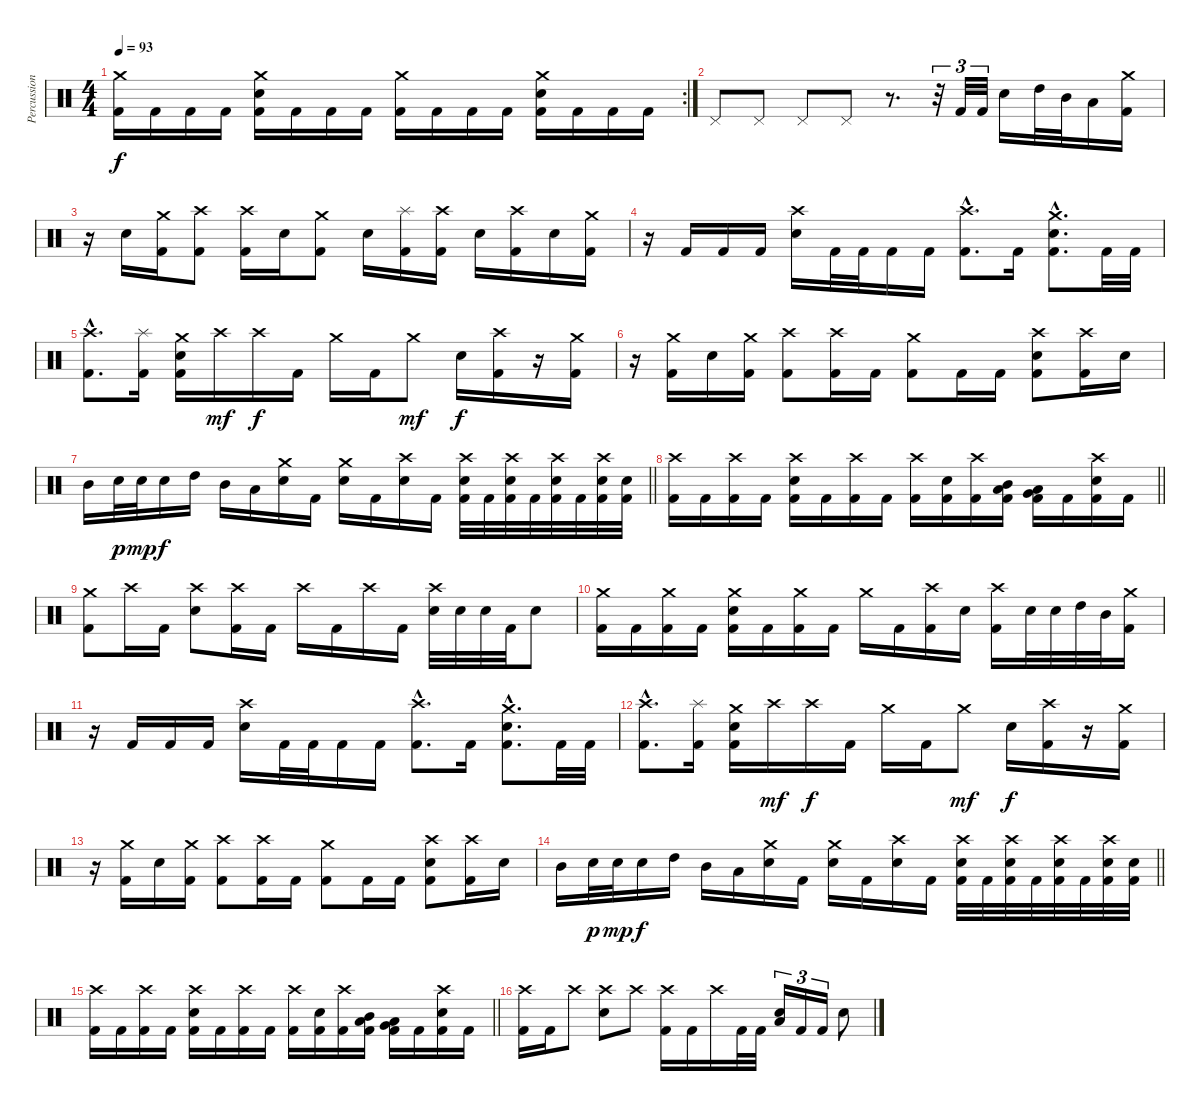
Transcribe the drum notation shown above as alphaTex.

\track ("Percussions" "Percussion") {instrument percussion}
\staff {score}
\articulation defaults
\rc 2
\ts (4 4)
\tempo 93
\clef neutral
\ks c
("Crash medium (hit)" "Kick (hit) 2").16{dy f} "Kick (hit) 2".16 "Kick (hit) 2".16 "Kick (hit) 2".16 ("Crash medium (hit)" "Electric Snare (hit)" "Kick (hit) 2").16 "Kick (hit) 2".16 "Kick (hit) 2".16 "Kick (hit) 2".16 ("Crash medium (hit)" "Kick (hit) 2").16 "Kick (hit) 2".16 "Kick (hit) 2".16 "Kick (hit) 2".16 ("Crash medium (hit)" "Electric Snare (hit)" "Kick (hit) 2").16 "Kick (hit) 2".16 "Kick (hit) 2".16 "Kick (hit) 2".16 |
"Pedal Hi-Hat (hit)".8 "Pedal Hi-Hat (hit)".8 "Pedal Hi-Hat (hit)".8 "Pedal Hi-Hat (hit)".8 r.8{d} r.32{tu (3 2)} "Kick (hit) 2".32{tu (3 2)} "Kick (hit) 2".32{tu (3 2)} "Electric Snare (hit)".16 "High Tom (hit)".32 "Mid Tom (hit)".32 "Low Tom (hit)".16 ("Crash medium (hit)" "Kick (hit) 2").16 |
r.16 "Electric Snare (hit)".16 ("Crash medium (hit)" "Kick (hit) 2").16 ("Crash high (hit)" "Kick (hit) 2").8 ("Crash high (hit)" "Kick (hit) 2").16 "Electric Snare (hit)".16 ("Crash medium (hit)" "Kick (hit) 2").8 "Electric Snare (hit)".16 ("Splash (hit)" "Kick (hit) 2").16 ("Crash high (hit)" "Kick (hit) 2").16 "Electric Snare (hit)".16 ("Crash high (hit)" "Kick (hit) 2").16 "Electric Snare (hit)".16 ("Crash medium (hit)" "Kick (hit) 2").16 |
r.16 "Kick (hit) 2".16 "Kick (hit) 2".16 "Kick (hit) 2".16 ("Crash high (hit)" "Electric Snare (hit)").16 "Kick (hit) 2".32 "Kick (hit) 2".32 "Kick (hit) 2".16 "Kick (hit) 2".16 ("Crash high (hit)"{hac} "Kick (hit) 2"{hac}).8{d} "Kick (hit) 2".16 ("Crash medium (hit)"{hac} "Electric Snare (hit)"{hac} "Kick (hit) 2"{hac}).8{d} "Kick (hit) 2".32 "Kick (hit) 2".32 |
("Crash high (hit)"{hac} "Kick (hit) 2"{hac}).8{d} ("Splash (hit)" "Kick (hit) 2").16 ("Crash medium (hit)" "Electric Snare (hit)" "Kick (hit) 2").16 "Crash high (hit)".16{dy mf} "Crash high (hit)".16{dy f} "Kick (hit) 2".16 "Crash medium (hit)".16 "Kick (hit) 2".16 "Crash medium (hit)".8{dy mf} "Electric Snare (hit)".16{dy f} ("Crash high (hit)" "Kick (hit) 2").16 r.16 ("Crash medium (hit)" "Kick (hit) 2").16 |
r.16 ("Crash medium (hit)" "Kick (hit) 2").16 "Electric Snare (hit)".16 ("Crash medium (hit)" "Kick (hit) 2").16 ("Crash high (hit)" "Kick (hit) 2").8 ("Crash high (hit)" "Kick (hit) 2").16 "Kick (hit) 2".16 ("Crash medium (hit)" "Kick (hit) 2").8 "Kick (hit) 2".16 "Kick (hit) 2".16 ("Crash high (hit)" "Electric Snare (hit)" "Kick (hit) 2").8 ("Crash high (hit)" "Kick (hit) 2").16 "Electric Snare (hit)".16 |
\barLineRight lightlight "Mid Tom (hit)".16 "Electric Snare (hit)".32{dy p} "Electric Snare (hit)".32{dy mp} "Electric Snare (hit)".16{dy f} "High Tom (hit)".16 "Mid Tom (hit)".16 "Low Tom (hit)".16
("Crash medium (hit)" "Electric Snare (hit)").16 "Kick (hit) 2".16 ("Crash medium (hit)" "Electric Snare (hit)").16 "Kick (hit) 2".16 ("Crash high (hit)" "Electric Snare (hit)").16 "Kick (hit) 2".16 ("Crash high (hit)" "Electric Snare (hit)" "Kick (hit) 2").32 "Kick (hit) 2".32 ("Crash high (hit)" "Electric Snare (hit)" "Kick (hit) 2").32 "Kick (hit) 2".32 ("Crash high (hit)" "Electric Snare (hit)" "Kick (hit) 2").32 "Kick (hit) 2".32 ("Crash high (hit)" "Electric Snare (hit)" "Kick (hit) 2").32 ("Electric Snare (hit)" "Kick (hit) 2").32 |
\barLineRight lightlight
("Crash high (hit)" "Kick (hit) 2").16 "Kick (hit) 2".16 ("Crash high (hit)" "Kick (hit) 2").16 "Kick (hit) 2".16 ("Crash high (hit)" "Electric Snare (hit)" "Kick (hit) 2").16 "Kick (hit) 2".16 ("Crash high (hit)" "Kick (hit) 2").16 "Kick (hit) 2".16 ("Crash high (hit)" "Kick (hit) 2").16 ("Electric Snare (hit)" "Kick (hit) 2").16 ("Crash high (hit)" "Kick (hit) 2").16 ("Mid Tom (hit)" "Low Tom (hit)" "Kick (hit) 2").16 ("Low Tom (hit)" "Very Low Tom (hit)" "Kick (hit) 2").16 "Kick (hit) 2".16 ("Crash high (hit)" "Electric Snare (hit)" "Kick (hit) 2").16 "Kick (hit) 2".16 |
("Crash medium (hit)" "Kick (hit) 2").8 "Crash high (hit)".16 "Kick (hit) 2".16 ("Crash high (hit)" "Electric Snare (hit)").8 ("Crash high (hit)" "Kick (hit) 2").16 "Kick (hit) 2".16 "Crash high (hit)".16 "Kick (hit) 2".16 "Crash high (hit)".16 "Kick (hit) 2".16 ("Crash high (hit)" "Electric Snare (hit)").32 "Electric Snare (hit)".32 "Electric Snare (hit)".32 "Kick (hit) 2".32 "Electric Snare (hit)".8 |
("Crash medium (hit)" "Kick (hit) 2").16 "Kick (hit) 2".16 ("Crash medium (hit)" "Kick (hit) 2").16 "Kick (hit) 2".16 ("Crash medium (hit)" "Electric Snare (hit)" "Kick (hit) 2").16 "Kick (hit) 2".16 ("Crash medium (hit)" "Kick (hit) 2").16 "Kick (hit) 2".16 "Crash medium (hit)".16 "Kick (hit) 2".16 ("Crash high (hit)" "Kick (hit) 2").16 "Electric Snare (hit)".16 ("Crash high (hit)" "Kick (hit) 2").16 "Electric Snare (hit)".32 "Electric Snare (hit)".32 "High Tom (hit)".32 "Mid Tom (hit)".32 ("Crash medium (hit)" "Kick (hit) 2").16 |
r.16 "Kick (hit) 2".16 "Kick (hit) 2".16 "Kick (hit) 2".16 ("Crash high (hit)" "Electric Snare (hit)").16 "Kick (hit) 2".32 "Kick (hit) 2".32 "Kick (hit) 2".16 "Kick (hit) 2".16 ("Crash high (hit)"{hac} "Kick (hit) 2"{hac}).8{d} "Kick (hit) 2".16 ("Crash medium (hit)"{hac} "Electric Snare (hit)"{hac} "Kick (hit) 2"{hac}).8{d} "Kick (hit) 2".32 "Kick (hit) 2".32 |
("Crash high (hit)"{hac} "Kick (hit) 2"{hac}).8{d} ("Splash (hit)" "Kick (hit) 2").16 ("Crash medium (hit)" "Electric Snare (hit)" "Kick (hit) 2").16 "Crash high (hit)".16{dy mf} "Crash high (hit)".16{dy f} "Kick (hit) 2".16 "Crash medium (hit)".16 "Kick (hit) 2".16 "Crash medium (hit)".8{dy mf} "Electric Snare (hit)".16{dy f} ("Crash high (hit)" "Kick (hit) 2").16 r.16 ("Crash medium (hit)" "Kick (hit) 2").16 |
r.16 ("Crash medium (hit)" "Kick (hit) 2").16 "Electric Snare (hit)".16 ("Crash medium (hit)" "Kick (hit) 2").16 ("Crash high (hit)" "Kick (hit) 2").8 ("Crash high (hit)" "Kick (hit) 2").16 "Kick (hit) 2".16 ("Crash medium (hit)" "Kick (hit) 2").8 "Kick (hit) 2".16 "Kick (hit) 2".16 ("Crash high (hit)" "Electric Snare (hit)" "Kick (hit) 2").8 ("Crash high (hit)" "Kick (hit) 2").16 "Electric Snare (hit)".16 |
\barLineRight lightlight "Mid Tom (hit)".16 "Electric Snare (hit)".32{dy p} "Electric Snare (hit)".32{dy mp} "Electric Snare (hit)".16{dy f} "High Tom (hit)".16 "Mid Tom (hit)".16 "Low Tom (hit)".16
("Crash medium (hit)" "Electric Snare (hit)").16 "Kick (hit) 2".16 ("Crash medium (hit)" "Electric Snare (hit)").16 "Kick (hit) 2".16 ("Crash high (hit)" "Electric Snare (hit)").16 "Kick (hit) 2".16 ("Crash high (hit)" "Electric Snare (hit)" "Kick (hit) 2").32 "Kick (hit) 2".32 ("Crash high (hit)" "Electric Snare (hit)" "Kick (hit) 2").32 "Kick (hit) 2".32 ("Crash high (hit)" "Electric Snare (hit)" "Kick (hit) 2").32 "Kick (hit) 2".32 ("Crash high (hit)" "Electric Snare (hit)" "Kick (hit) 2").32 ("Electric Snare (hit)" "Kick (hit) 2").32 |
\barLineRight lightlight
("Crash high (hit)" "Kick (hit) 2").16 "Kick (hit) 2".16 ("Crash high (hit)" "Kick (hit) 2").16 "Kick (hit) 2".16 ("Crash high (hit)" "Electric Snare (hit)" "Kick (hit) 2").16 "Kick (hit) 2".16 ("Crash high (hit)" "Kick (hit) 2").16 "Kick (hit) 2".16 ("Crash high (hit)" "Kick (hit) 2").16 ("Electric Snare (hit)" "Kick (hit) 2").16 ("Crash high (hit)" "Kick (hit) 2").16 ("Mid Tom (hit)" "Low Tom (hit)" "Kick (hit) 2").16 ("Low Tom (hit)" "Very Low Tom (hit)" "Kick (hit) 2").16 "Kick (hit) 2".16 ("Crash high (hit)" "Electric Snare (hit)" "Kick (hit) 2").16 "Kick (hit) 2".16 |
("Crash high (hit)" "Kick (hit) 2").16 "Kick (hit) 2".16 "Crash high (hit)".8 ("Crash high (hit)" "Electric Snare (hit)").8 "Crash high (hit)".8 ("Crash high (hit)" "Kick (hit) 2").16 "Kick (hit) 2".16 "Crash high (hit)".16 "Kick (hit) 2".32 "Kick (hit) 2".32 ("Low Tom (hit)" "Electric Snare (hit)").16{tu (3 2)} "Kick (hit) 2".16{tu (3 2)} "Kick (hit) 2".16{tu (3 2)} "Electric Snare (hit)".8
